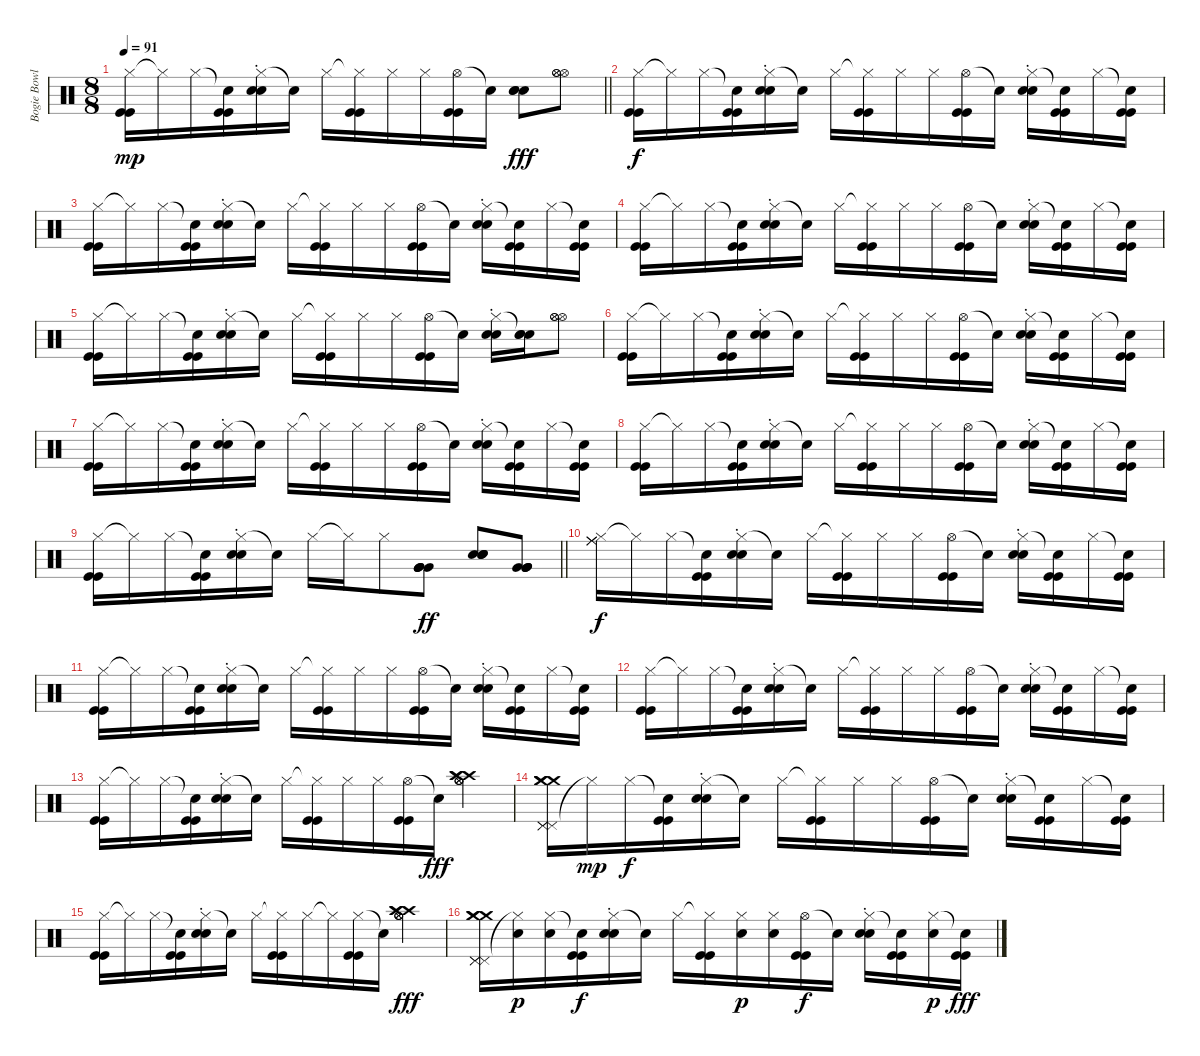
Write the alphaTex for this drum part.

\track ("Bogie Bowles Drums" "Bogie Bowl") {instrument percussion}
\staff {score}
\articulation defaults
\ts (8 8)
\tempo 91
\clef neutral
\barLineRight lightlight
\ks c
("Hi-Hat (closed)" "Kick (hit)" "Kick (hit)").16{dy mp} "Hi-Hat (closed)"{t}.16 "Hi-Hat (closed)".16 ("Snare (hit)"{t} "Kick (hit)" "Kick (hit)").16 ("Hi-Hat (closed)" "Snare (hit) 2"{st} "Snare (hit) 2").16 "Snare (hit)"{t}.16 "Hi-Hat (closed)".16 ("Hi-Hat (closed)"{t} "Kick (hit)" "Kick (hit)").16 "Hi-Hat (closed)".16 "Hi-Hat (closed)".16 ("Hi-Hat (open)" "Kick (hit)" "Kick (hit)").16 "Snare (hit)"{t}.16 ("Snare (hit) 2" "Snare (hit) 2" "Snare (hit) 2").8{dy fff} ("Hi-Hat (open)" "Hi-Hat (open)" "Hi-Hat (open)").8 |
("Hi-Hat (closed)" "Kick (hit)" "Kick (hit)").16{dy f} "Hi-Hat (closed)"{t}.16 "Hi-Hat (closed)".16 ("Snare (hit)"{t} "Kick (hit)" "Kick (hit)").16 ("Hi-Hat (closed)" "Snare (hit) 2"{st} "Snare (hit) 2").16 "Snare (hit)"{t}.16 "Hi-Hat (closed)".16 ("Hi-Hat (closed)"{t} "Kick (hit)" "Kick (hit)").16 "Hi-Hat (closed)".16 "Hi-Hat (closed)".16 ("Hi-Hat (open)" "Kick (hit)" "Kick (hit)").16 "Snare (hit)"{t}.16 ("Hi-Hat (closed)" "Snare (hit) 2"{st} "Snare (hit) 2").16 ("Snare (hit)"{t} "Kick (hit)" "Kick (hit)").16 "Hi-Hat (closed)".16 ("Snare (hit)"{t} "Kick (hit)" "Kick (hit)").16 |
("Hi-Hat (closed)" "Kick (hit)" "Kick (hit)").16 "Hi-Hat (closed)"{t}.16 "Hi-Hat (closed)".16 ("Snare (hit)"{t} "Kick (hit)" "Kick (hit)").16 ("Hi-Hat (closed)" "Snare (hit) 2"{st} "Snare (hit) 2").16 "Snare (hit)"{t}.16 "Hi-Hat (closed)".16 ("Hi-Hat (closed)"{t} "Kick (hit)" "Kick (hit)").16 "Hi-Hat (closed)".16 "Hi-Hat (closed)".16 ("Hi-Hat (open)" "Kick (hit)" "Kick (hit)").16 "Snare (hit)"{t}.16 ("Hi-Hat (closed)" "Snare (hit) 2"{st} "Snare (hit) 2").16 ("Snare (hit)"{t} "Kick (hit)" "Kick (hit)").16 "Hi-Hat (closed)".16 ("Snare (hit)"{t} "Kick (hit)" "Kick (hit)").16 |
("Hi-Hat (closed)" "Kick (hit)" "Kick (hit)").16 "Hi-Hat (closed)"{t}.16 "Hi-Hat (closed)".16 ("Snare (hit)"{t} "Kick (hit)" "Kick (hit)").16 ("Hi-Hat (closed)" "Snare (hit) 2"{st} "Snare (hit) 2").16 "Snare (hit)"{t}.16 "Hi-Hat (closed)".16 ("Hi-Hat (closed)"{t} "Kick (hit)" "Kick (hit)").16 "Hi-Hat (closed)".16 "Hi-Hat (closed)".16 ("Hi-Hat (open)" "Kick (hit)" "Kick (hit)").16 "Snare (hit)"{t}.16 ("Hi-Hat (closed)" "Snare (hit) 2"{st} "Snare (hit) 2").16 ("Snare (hit)"{t} "Kick (hit)" "Kick (hit)").16 "Hi-Hat (closed)".16 ("Snare (hit)"{t} "Kick (hit)" "Kick (hit)").16 |
("Hi-Hat (closed)" "Kick (hit)" "Kick (hit)").16 "Hi-Hat (closed)"{t}.16 "Hi-Hat (closed)".16 ("Snare (hit)"{t} "Kick (hit)" "Kick (hit)").16 ("Hi-Hat (closed)" "Snare (hit) 2"{st} "Snare (hit) 2").16 "Snare (hit)"{t}.16 "Hi-Hat (closed)".16 ("Hi-Hat (closed)"{t} "Kick (hit)" "Kick (hit)").16 "Hi-Hat (closed)".16 "Hi-Hat (closed)".16 ("Hi-Hat (open)" "Kick (hit)" "Kick (hit)").16 "Snare (hit)"{t}.16 ("Hi-Hat (closed)" "Snare (hit) 2"{st} "Snare (hit) 2").16 ("Snare (hit)"{t} "Snare (hit) 2" "Snare (hit) 2").16 ("Hi-Hat (open)" "Hi-Hat (open)" "Hi-Hat (open)").8 |
("Hi-Hat (closed)" "Kick (hit)" "Kick (hit)").16 "Hi-Hat (closed)"{t}.16 "Hi-Hat (closed)".16 ("Snare (hit)"{t} "Kick (hit)" "Kick (hit)").16 ("Hi-Hat (closed)" "Snare (hit) 2"{st} "Snare (hit) 2").16 "Snare (hit)"{t}.16 "Hi-Hat (closed)".16 ("Hi-Hat (closed)"{t} "Kick (hit)" "Kick (hit)").16 "Hi-Hat (closed)".16 "Hi-Hat (closed)".16 ("Hi-Hat (open)" "Kick (hit)" "Kick (hit)").16 "Snare (hit)"{t}.16 ("Hi-Hat (closed)" "Snare (hit) 2"{st} "Snare (hit) 2").16 ("Snare (hit)"{t} "Kick (hit)" "Kick (hit)").16 "Hi-Hat (closed)".16 ("Snare (hit)"{t} "Kick (hit)" "Kick (hit)").16 |
("Hi-Hat (closed)" "Kick (hit)" "Kick (hit)").16 "Hi-Hat (closed)"{t}.16 "Hi-Hat (closed)".16 ("Snare (hit)"{t} "Kick (hit)" "Kick (hit)").16 ("Hi-Hat (closed)" "Snare (hit) 2"{st} "Snare (hit) 2").16 "Snare (hit)"{t}.16 "Hi-Hat (closed)".16 ("Hi-Hat (closed)"{t} "Kick (hit)" "Kick (hit)").16 "Hi-Hat (closed)".16 "Hi-Hat (closed)".16 ("Hi-Hat (open)" "Kick (hit)" "Kick (hit)").16 "Snare (hit)"{t}.16 ("Hi-Hat (closed)" "Snare (hit) 2"{st} "Snare (hit) 2").16 ("Snare (hit)"{t} "Kick (hit)" "Kick (hit)").16 "Hi-Hat (closed)".16 ("Snare (hit)"{t} "Kick (hit)" "Kick (hit)").16 |
("Hi-Hat (closed)" "Kick (hit)" "Kick (hit)").16 "Hi-Hat (closed)"{t}.16 "Hi-Hat (closed)".16 ("Snare (hit)"{t} "Kick (hit)" "Kick (hit)").16 ("Hi-Hat (closed)" "Snare (hit) 2"{st} "Snare (hit) 2").16 "Snare (hit)"{t}.16 "Hi-Hat (closed)".16 ("Hi-Hat (closed)"{t} "Kick (hit)" "Kick (hit)").16 "Hi-Hat (closed)".16 "Hi-Hat (closed)".16 ("Hi-Hat (open)" "Kick (hit)" "Kick (hit)").16 "Snare (hit)"{t}.16 ("Hi-Hat (closed)" "Snare (hit) 2"{st} "Snare (hit) 2").16 ("Snare (hit)"{t} "Kick (hit)" "Kick (hit)").16 "Hi-Hat (closed)".16 ("Snare (hit)"{t} "Kick (hit)" "Kick (hit)").16 |
\barLineRight lightlight
("Hi-Hat (closed)" "Kick (hit)" "Kick (hit)").16 "Hi-Hat (closed)"{t}.16 "Hi-Hat (closed)".16 ("Snare (hit)"{t} "Kick (hit)" "Kick (hit)").16 ("Hi-Hat (closed)" "Snare (hit) 2"{st} "Snare (hit) 2").16 "Snare (hit)"{t}.16 "Hi-Hat (closed)".16 "Hi-Hat (closed)"{t}.16 "Hi-Hat (closed)".8 ("Very Low Tom (hit)" "Very Low Tom (hit)" "Very Low Tom (hit)" "Very Low Tom (hit)").8{dy ff} ("Snare (hit) 2" "Snare (hit) 2" "Snare (hit) 2" "Snare (hit) 2").8 ("Very Low Tom (hit)" "Very Low Tom (hit)" "Very Low Tom (hit)" "Very Low Tom (hit)").8 |
("Hi-Hat (closed)" "Ride (middle)" "Ride (middle)" "Ride (middle)").16{dy f} "Hi-Hat (closed)"{t}.16 "Hi-Hat (closed)".16 ("Snare (hit)"{t} "Kick (hit)" "Kick (hit)").16 ("Hi-Hat (closed)" "Snare (hit) 2"{st} "Snare (hit) 2").16 "Snare (hit)"{t}.16 "Hi-Hat (closed)".16 ("Hi-Hat (closed)"{t} "Kick (hit)" "Kick (hit)").16 "Hi-Hat (closed)".16 "Hi-Hat (closed)".16 ("Hi-Hat (open)" "Kick (hit)" "Kick (hit)").16 "Snare (hit)"{t}.16 ("Hi-Hat (closed)" "Snare (hit) 2"{st} "Snare (hit) 2").16 ("Snare (hit)"{t} "Kick (hit)" "Kick (hit)").16 "Hi-Hat (closed)".16 ("Snare (hit)"{t} "Kick (hit)" "Kick (hit)").16 |
("Hi-Hat (closed)" "Kick (hit)" "Kick (hit)").16 "Hi-Hat (closed)"{t}.16 "Hi-Hat (closed)".16 ("Snare (hit)"{t} "Kick (hit)" "Kick (hit)").16 ("Hi-Hat (closed)" "Snare (hit) 2"{st} "Snare (hit) 2").16 "Snare (hit)"{t}.16 "Hi-Hat (closed)".16 ("Hi-Hat (closed)"{t} "Kick (hit)" "Kick (hit)").16 "Hi-Hat (closed)".16 "Hi-Hat (closed)".16 ("Hi-Hat (open)" "Kick (hit)" "Kick (hit)").16 "Snare (hit)"{t}.16 ("Hi-Hat (closed)" "Snare (hit) 2"{st} "Snare (hit) 2").16 ("Snare (hit)"{t} "Kick (hit)" "Kick (hit)").16 "Hi-Hat (closed)".16 ("Snare (hit)"{t} "Kick (hit)" "Kick (hit)").16 |
("Hi-Hat (closed)" "Kick (hit)" "Kick (hit)").16 "Hi-Hat (closed)"{t}.16 "Hi-Hat (closed)".16 ("Snare (hit)"{t} "Kick (hit)" "Kick (hit)").16 ("Hi-Hat (closed)" "Snare (hit) 2"{st} "Snare (hit) 2").16 "Snare (hit)"{t}.16 "Hi-Hat (closed)".16 ("Hi-Hat (closed)"{t} "Kick (hit)" "Kick (hit)").16 "Hi-Hat (closed)".16 "Hi-Hat (closed)".16 ("Hi-Hat (open)" "Kick (hit)" "Kick (hit)").16 "Snare (hit)"{t}.16 ("Hi-Hat (closed)" "Snare (hit) 2"{st} "Snare (hit) 2").16 ("Snare (hit)"{t} "Kick (hit)" "Kick (hit)").16 "Hi-Hat (closed)".16 ("Snare (hit)"{t} "Kick (hit)" "Kick (hit)").16 |
("Hi-Hat (closed)" "Kick (hit)" "Kick (hit)").16 "Hi-Hat (closed)"{t}.16 "Hi-Hat (closed)".16 ("Snare (hit)"{t} "Kick (hit)" "Kick (hit)").16 ("Hi-Hat (closed)" "Snare (hit) 2"{st} "Snare (hit) 2").16 "Snare (hit)"{t}.16 "Hi-Hat (closed)".16 ("Hi-Hat (closed)"{t} "Kick (hit)" "Kick (hit)").16 "Hi-Hat (closed)".16 "Hi-Hat (closed)".16 ("Hi-Hat (open)" "Kick (hit)" "Kick (hit)").16 "Snare (hit)"{t}.16{dy fff} ("Hi-Hat (open)" "Hi-Hat (open)" "Hi-Hat (open)" "Crash high (hit)" "Crash high (hit)" "Crash high (hit)").4 |
("Pedal Hi-Hat (hit)" "Pedal Hi-Hat (hit)" "Pedal Hi-Hat (hit)" "Crash medium (hit)" "Crash medium (hit)" "Crash medium (hit)").16 "Hi-Hat (closed)"{t}.16{dy mp} "Hi-Hat (closed)".16{dy f} ("Snare (hit)"{t} "Kick (hit)" "Kick (hit)").16 ("Hi-Hat (closed)" "Snare (hit) 2"{st} "Snare (hit) 2").16 "Snare (hit)"{t}.16 "Hi-Hat (closed)".16 ("Hi-Hat (closed)"{t} "Kick (hit)" "Kick (hit)").16 "Hi-Hat (closed)".16 "Hi-Hat (closed)".16 ("Hi-Hat (open)" "Kick (hit)" "Kick (hit)").16 "Snare (hit)"{t}.16 ("Hi-Hat (closed)" "Snare (hit) 2"{st} "Snare (hit) 2").16 ("Snare (hit)"{t} "Kick (hit)" "Kick (hit)").16 "Hi-Hat (closed)".16 ("Snare (hit)"{t} "Kick (hit)" "Kick (hit)").16 |
("Hi-Hat (closed)" "Kick (hit)" "Kick (hit)").16 "Hi-Hat (closed)"{t}.16 "Hi-Hat (closed)".16 ("Snare (hit)"{t} "Kick (hit)" "Kick (hit)").16 ("Hi-Hat (closed)" "Snare (hit) 2"{st} "Snare (hit) 2").16 "Snare (hit)"{t}.16 "Hi-Hat (closed)".16 ("Hi-Hat (closed)"{t} "Kick (hit)" "Kick (hit)").16 "Hi-Hat (closed)".16 "Hi-Hat (closed)"{t}.16 ("Hi-Hat (closed)" "Kick (hit)" "Kick (hit)").16 "Snare (hit)"{t}.16 ("Hi-Hat (open)" "Hi-Hat (open)" "Hi-Hat (open)" "Crash high (hit)" "Crash high (hit)" "Crash high (hit)").4{dy fff} |
("Pedal Hi-Hat (hit)" "Pedal Hi-Hat (hit)" "Pedal Hi-Hat (hit)" "Crash medium (hit)" "Crash medium (hit)" "Crash medium (hit)").16 ("Hi-Hat (closed)"{t} "Snare (hit) 2").16{dy p} ("Hi-Hat (closed)" "Snare (hit) 2").16 ("Snare (hit)"{t} "Kick (hit)" "Kick (hit)").16{dy f} ("Hi-Hat (closed)" "Snare (hit) 2"{st} "Snare (hit) 2").16 "Snare (hit)"{t}.16 "Hi-Hat (closed)".16 ("Hi-Hat (closed)"{t} "Kick (hit)" "Kick (hit)").16 ("Hi-Hat (closed)" "Snare (hit) 2").16{dy p} ("Hi-Hat (closed)" "Snare (hit) 2").16 ("Hi-Hat (open)" "Kick (hit)" "Kick (hit)").16{dy f} "Snare (hit)"{t}.16 ("Hi-Hat (closed)" "Snare (hit) 2"{st} "Snare (hit) 2").16 ("Snare (hit)"{t} "Kick (hit)" "Kick (hit)").16 ("Hi-Hat (closed)" "Snare (hit) 2").16{dy p} ("Snare (hit)"{t} "Kick (hit)" "Kick (hit)").16{dy fff}
